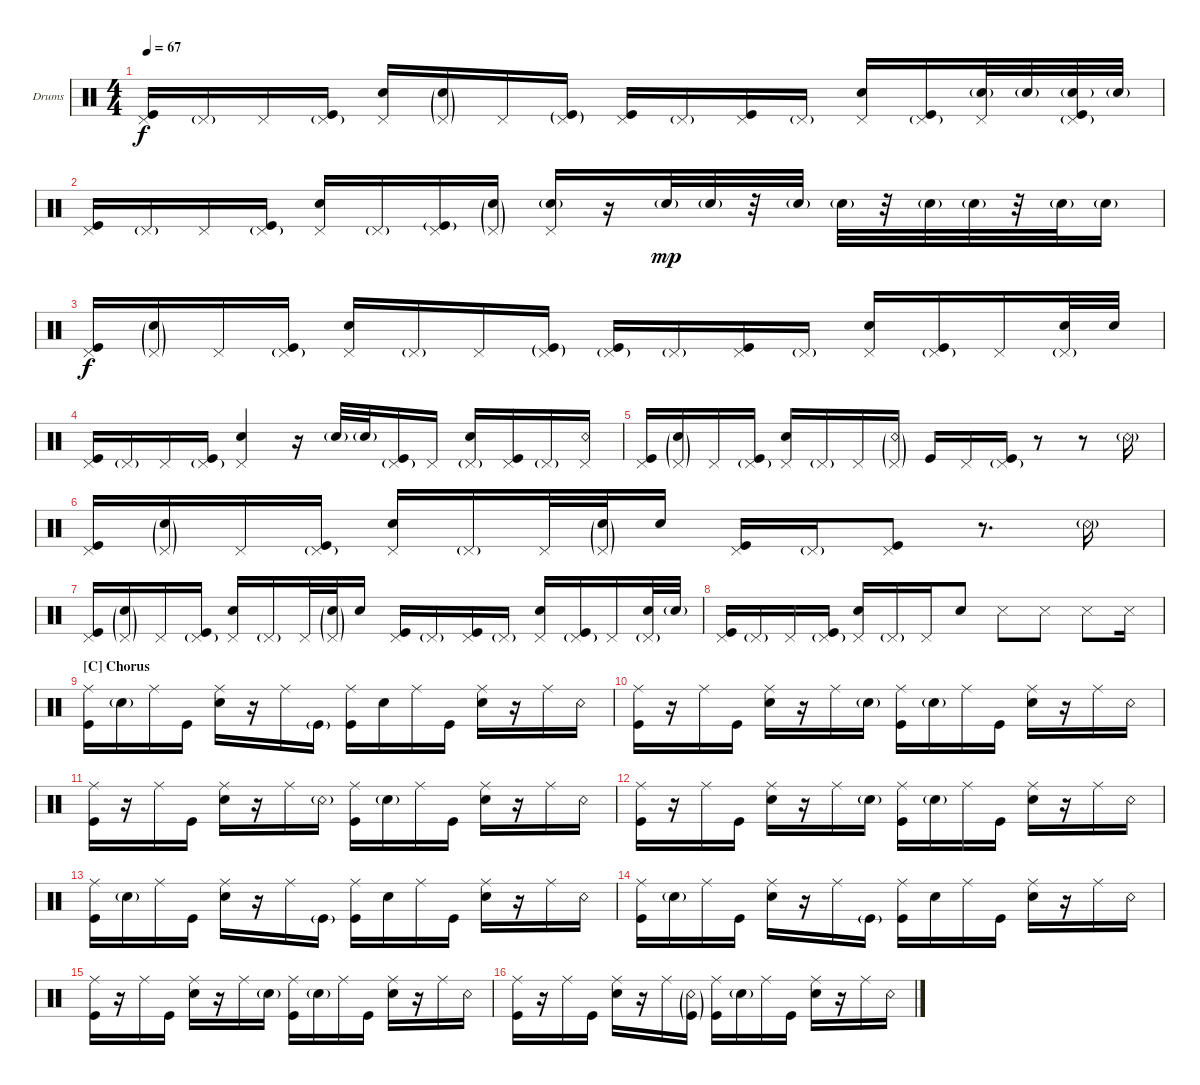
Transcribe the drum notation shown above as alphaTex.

\defaultSystemsLayout 4
\bracketExtendMode groupsimilarinstruments
\firstSystemTrackNameOrientation horizontal
\otherSystemsTrackNameOrientation horizontal
\track ("Freese" "Drums") {instrument percussion}
\staff {score}
\articulation defaults
\ts (4 4)
\tempo 67
\clef neutral
\scale
0.333333
\ks c
("Pedal Hi-Hat (hit)" "Kick (hit)").16{dy f} "Pedal Hi-Hat (hit)"{g}.16 "Pedal Hi-Hat (hit)".16 ("Kick (hit)" "Pedal Hi-Hat (hit)"{g}).16 ("Pedal Hi-Hat (hit)" "Snare (hit) 2").16 ("Pedal Hi-Hat (hit)"{g} "Snare (hit) 2"{g}).16 "Pedal Hi-Hat (hit)".16 ("Pedal Hi-Hat (hit)"{g} "Kick (hit)"{g}).16 ("Kick (hit)" "Pedal Hi-Hat (hit)").16 "Pedal Hi-Hat (hit)"{g}.16 ("Pedal Hi-Hat (hit)" "Kick (hit)").16 "Pedal Hi-Hat (hit)"{g}.16 ("Pedal Hi-Hat (hit)" "Snare (hit) 2").16 ("Pedal Hi-Hat (hit)"{g} "Kick (hit)").16 ("Pedal Hi-Hat (hit)" "Snare (hit) 2"{g}).32 "Snare (hit) 2"{g}.32 ("Pedal Hi-Hat (hit)"{g} "Snare (hit) 2"{g} "Kick (hit)").32 "Snare (hit) 2"{g}.32 |
\scale
0.333333 ("Pedal Hi-Hat (hit)" "Kick (hit)").16 "Pedal Hi-Hat (hit)"{g}.16 "Pedal Hi-Hat (hit)".16 ("Pedal Hi-Hat (hit)"{g} "Kick (hit)").16 ("Pedal Hi-Hat (hit)" "Snare (hit) 2").16 "Pedal Hi-Hat (hit)"{g}.16 ("Pedal Hi-Hat (hit)" "Kick (hit)"{g}).16 ("Pedal Hi-Hat (hit)"{g} "Snare (hit) 2"{g}).16 ("Pedal Hi-Hat (hit)" "Snare (hit) 2"{g}).16 r.16 "Snare (hit) 2"{g}.32{dy mp} "Snare (hit) 2"{g}.32 r.32 "Snare (hit) 2"{g}.32 "Snare (hit) 2"{g}.32 r.32 "Snare (hit) 2"{g}.32 "Snare (hit) 2"{g}.32 r.32 "Snare (hit) 2"{g}.32 "Snare (hit) 2"{g}.16 |
\scale
0.333333 ("Pedal Hi-Hat (hit)" "Kick (hit)").16{dy f} ("Pedal Hi-Hat (hit)"{g} "Snare (hit) 2"{g}).16 "Pedal Hi-Hat (hit)".16 ("Pedal Hi-Hat (hit)"{g} "Kick (hit)").16 ("Pedal Hi-Hat (hit)" "Snare (hit) 2").16 "Pedal Hi-Hat (hit)"{g}.16 "Pedal Hi-Hat (hit)".16 ("Pedal Hi-Hat (hit)"{g} "Kick (hit)"{g}).16 ("Pedal Hi-Hat (hit)"{g} "Kick (hit)").16 "Pedal Hi-Hat (hit)"{g}.16 ("Pedal Hi-Hat (hit)" "Kick (hit)").16 "Pedal Hi-Hat (hit)"{g}.16 ("Pedal Hi-Hat (hit)" "Snare (hit) 2").16 ("Pedal Hi-Hat (hit)"{g} "Kick (hit)").16 "Pedal Hi-Hat (hit)".16 ("Pedal Hi-Hat (hit)"{g} "Snare (hit) 2").32 "Snare (hit) 2".32 |
\scale
0.333333 ("Pedal Hi-Hat (hit)" "Kick (hit)").16 "Pedal Hi-Hat (hit)"{g}.16 "Pedal Hi-Hat (hit)".16 ("Pedal Hi-Hat (hit)"{g} "Kick (hit)").16 ("Pedal Hi-Hat (hit)" "Snare (hit) 2").4 r.16 "Snare (hit) 2"{g}.32 "Snare (hit) 2"{g}.32 ("Pedal Hi-Hat (hit)"{g} "Kick (hit)").16 "Pedal Hi-Hat (hit)".16 ("Pedal Hi-Hat (hit)"{g} "Snare (hit) 2").16 ("Pedal Hi-Hat (hit)" "Kick (hit)").16 "Pedal Hi-Hat (hit)"{g}.16 ("Pedal Hi-Hat (hit)" "Snare (rim shot)").16 |
\scale
0.333333 ("Pedal Hi-Hat (hit)" "Kick (hit)").16 ("Pedal Hi-Hat (hit)"{g} "Snare (hit) 2"{g}).16 "Pedal Hi-Hat (hit)".16 ("Pedal Hi-Hat (hit)"{g} "Kick (hit)").16 ("Pedal Hi-Hat (hit)" "Snare (hit) 2").16 "Pedal Hi-Hat (hit)"{g}.16 "Pedal Hi-Hat (hit)".16 ("Pedal Hi-Hat (hit)"{g} "Snare (rim shot)"{g}).16 "Kick (hit)".16 "Pedal Hi-Hat (hit)".16 ("Pedal Hi-Hat (hit)"{g} "Kick (hit)").16 r.8 r.8 "Snare (rim shot)"{g}.16 |
\scale
0.333333 ("Pedal Hi-Hat (hit)" "Kick (hit)").16 ("Pedal Hi-Hat (hit)"{g} "Snare (hit) 2"{g}).16 "Pedal Hi-Hat (hit)".16 ("Pedal Hi-Hat (hit)"{g} "Kick (hit)").16 ("Pedal Hi-Hat (hit)" "Snare (hit) 2").16 "Pedal Hi-Hat (hit)"{g}.16 "Pedal Hi-Hat (hit)".32 ("Pedal Hi-Hat (hit)"{g} "Snare (hit) 2"{g}).32 "Snare (hit) 2".16 ("Pedal Hi-Hat (hit)" "Kick (hit)").16 "Pedal Hi-Hat (hit)"{g}.16 ("Pedal Hi-Hat (hit)" "Kick (hit)").8 r.8{d} "Snare (rim shot)"{g}.16 |
\scale
0.333333 ("Pedal Hi-Hat (hit)" "Kick (hit)").16 ("Pedal Hi-Hat (hit)"{g} "Snare (hit) 2"{g}).16 "Pedal Hi-Hat (hit)".16 ("Pedal Hi-Hat (hit)"{g} "Kick (hit)").16 ("Pedal Hi-Hat (hit)" "Snare (hit) 2").16 "Pedal Hi-Hat (hit)"{g}.16 "Pedal Hi-Hat (hit)".32 ("Pedal Hi-Hat (hit)"{g} "Snare (hit) 2"{g}).32 "Snare (hit) 2".16 ("Pedal Hi-Hat (hit)" "Kick (hit)").16 "Pedal Hi-Hat (hit)"{g}.16 ("Pedal Hi-Hat (hit)" "Kick (hit)").16 "Pedal Hi-Hat (hit)"{g}.16 ("Pedal Hi-Hat (hit)" "Snare (hit) 2").16 ("Pedal Hi-Hat (hit)"{g} "Kick (hit)").16 "Pedal Hi-Hat (hit)".16 ("Pedal Hi-Hat (hit)"{g} "Snare (hit) 2").32 "Snare (hit) 2"{g}.32 |
\scale
0.333333 ("Kick (hit)" "Pedal Hi-Hat (hit)").16 "Pedal Hi-Hat (hit)"{g}.16 "Pedal Hi-Hat (hit)".16 ("Pedal Hi-Hat (hit)"{g} "Kick (hit)").16 ("Pedal Hi-Hat (hit)" "Snare (hit) 2").16 "Pedal Hi-Hat (hit)"{g}.16 "Pedal Hi-Hat (hit)".16 "Snare (hit) 2".8 "Snare (side stick) 3".8 "Snare (side stick) 3".8 "Snare (side stick) 3".8 "Snare (side stick) 3".16 |
\section ("C" "Chorus")
\scale
0.333333 ("Kick (hit)" "Ride (middle)").16 "Snare (hit) 2"{g}.16 "Ride (middle)".16 "Kick (hit)".16 ("Ride (middle)" "Snare (hit) 2").16 r.16 "Ride (middle)".16 "Kick (hit)"{g}.16 ("Kick (hit)" "Ride (middle)").16 "Snare (hit) 2".16 "Ride (middle)".16 "Kick (hit)".16 ("Ride (middle)" "Snare (hit) 2").16 r.16 "Ride (middle)".16 "Snare (rim shot)".16 |
\scale
0.333333 ("Ride (middle)" "Kick (hit)").16 r.16 "Ride (middle)".16 "Kick (hit)".16 ("Ride (middle)" "Snare (hit) 2").16 r.16 "Ride (middle)".16 "Snare (hit) 2"{g}.16 ("Ride (middle)" "Kick (hit)").16 "Snare (hit) 2"{g}.16 "Ride (middle)".16 "Kick (hit)".16 ("Ride (middle)" "Snare (hit) 2").16 r.16 "Ride (middle)".16 "Snare (rim shot)".16 |
\scale
0.333333 ("Ride (middle)" "Kick (hit)").16 r.16 "Ride (middle)".16 "Kick (hit)".16 ("Ride (middle)" "Snare (hit) 2").16 r.16 "Ride (middle)".16 "Snare (rim shot)"{g}.16 ("Ride (middle)" "Kick (hit)").16 "Snare (hit) 2"{g}.16 "Ride (middle)".16 "Kick (hit)".16 ("Ride (middle)" "Snare (hit) 2").16 r.16 "Ride (middle)".16 "Snare (rim shot)".16 |
\scale
0.333333 ("Ride (middle)" "Kick (hit)").16 r.16 "Ride (middle)".16 "Kick (hit)".16 ("Ride (middle)" "Snare (hit) 2").16 r.16 "Ride (middle)".16 "Snare (hit) 2"{g}.16 ("Ride (middle)" "Kick (hit)").16 "Snare (hit) 2"{g}.16 "Ride (middle)".16 "Kick (hit)".16 ("Ride (middle)" "Snare (hit) 2").16 r.16 "Ride (middle)".16 "Snare (rim shot)".16 |
\scale
0.333333 ("Kick (hit)" "Ride (middle)").16 "Snare (hit) 2"{g}.16 "Ride (middle)".16 "Kick (hit)".16 ("Ride (middle)" "Snare (hit) 2").16 r.16 "Ride (middle)".16 "Kick (hit)"{g}.16 ("Kick (hit)" "Ride (middle)").16 "Snare (hit) 2".16 "Ride (middle)".16 "Kick (hit)".16 ("Ride (middle)" "Snare (hit) 2").16 r.16 "Ride (middle)".16 "Snare (rim shot)".16 |
\scale
0.333333 ("Kick (hit)" "Ride (middle)").16 "Snare (hit) 2"{g}.16 "Ride (middle)".16 "Kick (hit)".16 ("Ride (middle)" "Snare (hit) 2").16 r.16 "Ride (middle)".16 "Kick (hit)"{g}.16 ("Kick (hit)" "Ride (middle)").16 "Snare (hit) 2".16 "Ride (middle)".16 "Kick (hit)".16 ("Ride (middle)" "Snare (hit) 2").16 r.16 "Ride (middle)".16 "Snare (rim shot)".16 |
\scale
0.333333 ("Ride (middle)" "Kick (hit)").16 r.16 "Ride (middle)".16 "Kick (hit)".16 ("Ride (middle)" "Snare (hit) 2").16 r.16 "Ride (middle)".16 "Snare (hit) 2"{g}.16 ("Ride (middle)" "Kick (hit)").16 "Snare (hit) 2"{g}.16 "Ride (middle)".16 "Kick (hit)".16 ("Ride (middle)" "Snare (hit) 2").16 r.16 "Ride (middle)".16 "Snare (rim shot)".16 |
\scale
0.333333 ("Ride (middle)" "Kick (hit)").16 r.16 "Ride (middle)".16 "Kick (hit)".16 ("Ride (middle)" "Snare (hit) 2").16 r.16 "Ride (middle)".16 ("Snare (rim shot)"{g} "Kick (hit)"{g}).16 ("Ride (middle)" "Kick (hit)").16 "Snare (hit) 2"{g}.16 "Ride (middle)".16 "Kick (hit)".16 ("Ride (middle)" "Snare (hit) 2").16 r.16 "Ride (middle)".16 "Snare (rim shot)".16
